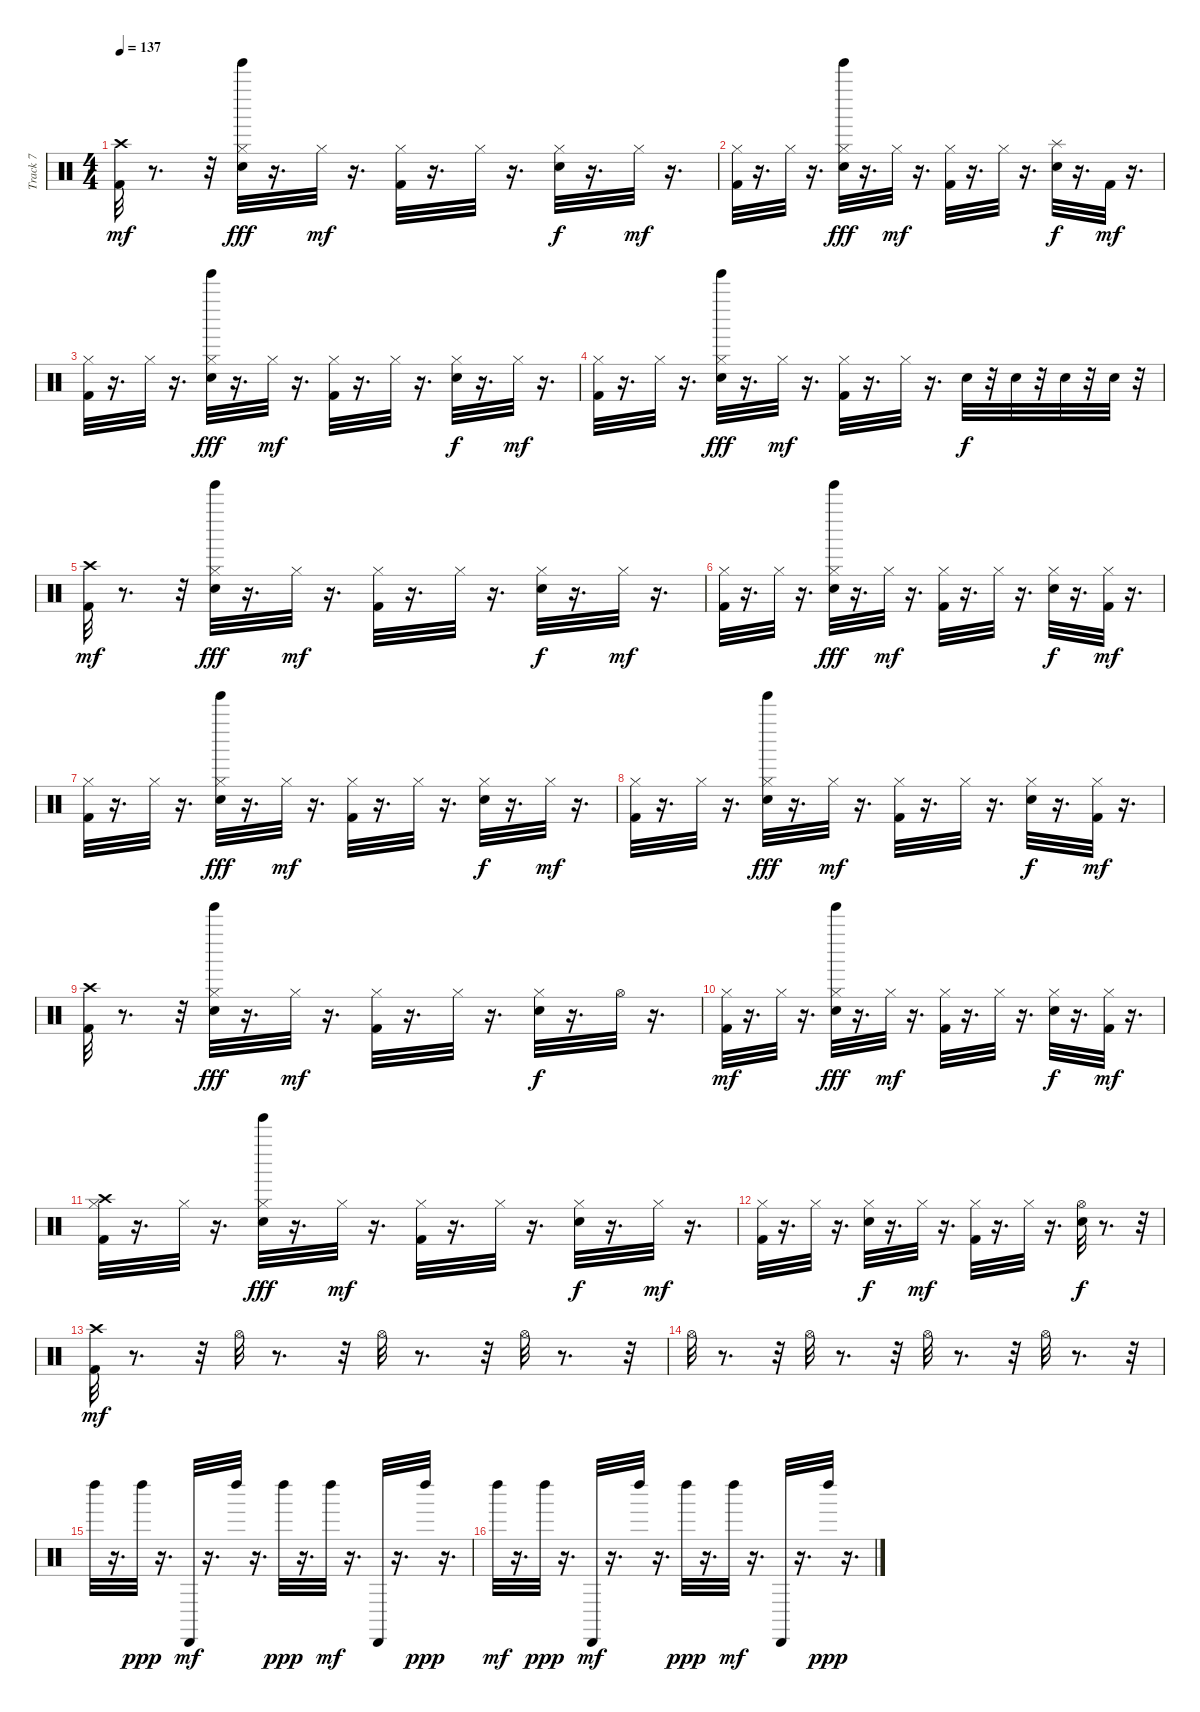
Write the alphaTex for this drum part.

\track ("Track 7" "Track 7") {instrument percussion}
\staff {score}
\articulation defaults
\ts (4 4)
\tempo 137
\clef neutral
\ks c
("Crash high (hit)" "Kick (hit) 2").32{dy mf} r.8{d} r.32 ("Tinkle Bell (hit)" "Snare (hit) 2" "Hi-Hat (closed)").32{dy fff} r.16{d} "Hi-Hat (closed)".32{dy mf} r.16{d} ("Kick (hit) 2" "Hi-Hat (closed)").32 r.16{d} "Hi-Hat (closed)".32 r.16{d} ("Snare (hit) 2" "Hi-Hat (closed)").32{dy f} r.16{d} "Hi-Hat (closed)".32{dy mf} r.16{d} |
("Kick (hit) 2" "Hi-Hat (closed)").32 r.16{d} "Hi-Hat (closed)".32 r.16{d} ("Tinkle Bell (hit)" "Snare (hit) 2" "Hi-Hat (closed)").32{dy fff} r.16{d} "Hi-Hat (closed)".32{dy mf} r.16{d} ("Kick (hit) 2" "Hi-Hat (closed)").32 r.16{d} "Hi-Hat (closed)".32 r.16{d} ("Splash (hit)" "Snare (hit) 2").32{dy f} r.16{d} "Kick (hit) 2".32{dy mf} r.16{d} |
("Kick (hit) 2" "Hi-Hat (closed)").32 r.16{d} "Hi-Hat (closed)".32 r.16{d} ("Tinkle Bell (hit)" "Snare (hit) 2" "Hi-Hat (closed)").32{dy fff} r.16{d} "Hi-Hat (closed)".32{dy mf} r.16{d} ("Kick (hit) 2" "Hi-Hat (closed)").32 r.16{d} "Hi-Hat (closed)".32 r.16{d} ("Snare (hit) 2" "Hi-Hat (closed)").32{dy f} r.16{d} "Hi-Hat (closed)".32{dy mf} r.16{d} |
("Kick (hit) 2" "Hi-Hat (closed)").32 r.16{d} "Hi-Hat (closed)".32 r.16{d} ("Tinkle Bell (hit)" "Snare (hit) 2" "Hi-Hat (closed)").32{dy fff} r.16{d} "Hi-Hat (closed)".32{dy mf} r.16{d} ("Kick (hit) 2" "Hi-Hat (closed)").32 r.16{d} "Hi-Hat (closed)".32 r.16{d} "Snare (hit) 2".32{dy f} r.32 "Snare (hit) 2".32 r.32 "Snare (hit) 2".32 r.32 "Snare (hit) 2".32 r.32 |
("Crash high (hit)" "Kick (hit) 2").32{dy mf} r.8{d} r.32 ("Tinkle Bell (hit)" "Snare (hit) 2" "Hi-Hat (closed)").32{dy fff} r.16{d} "Hi-Hat (closed)".32{dy mf} r.16{d} ("Kick (hit) 2" "Hi-Hat (closed)").32 r.16{d} "Hi-Hat (closed)".32 r.16{d} ("Snare (hit) 2" "Hi-Hat (closed)").32{dy f} r.16{d} "Hi-Hat (closed)".32{dy mf} r.16{d} |
("Kick (hit) 2" "Hi-Hat (closed)").32 r.16{d} "Hi-Hat (closed)".32 r.16{d} ("Tinkle Bell (hit)" "Snare (hit) 2" "Hi-Hat (closed)").32{dy fff} r.16{d} "Hi-Hat (closed)".32{dy mf} r.16{d} ("Kick (hit) 2" "Hi-Hat (closed)").32 r.16{d} "Hi-Hat (closed)".32 r.16{d} ("Snare (hit) 2" "Hi-Hat (closed)").32{dy f} r.16{d} ("Kick (hit) 2" "Hi-Hat (closed)").32{dy mf} r.16{d} |
("Kick (hit) 2" "Hi-Hat (closed)").32 r.16{d} "Hi-Hat (closed)".32 r.16{d} ("Tinkle Bell (hit)" "Snare (hit) 2" "Hi-Hat (closed)").32{dy fff} r.16{d} "Hi-Hat (closed)".32{dy mf} r.16{d} ("Kick (hit) 2" "Hi-Hat (closed)").32 r.16{d} "Hi-Hat (closed)".32 r.16{d} ("Snare (hit) 2" "Hi-Hat (closed)").32{dy f} r.16{d} "Hi-Hat (closed)".32{dy mf} r.16{d} |
("Kick (hit) 2" "Hi-Hat (closed)").32 r.16{d} "Hi-Hat (closed)".32 r.16{d} ("Tinkle Bell (hit)" "Snare (hit) 2" "Hi-Hat (closed)").32{dy fff} r.16{d} "Hi-Hat (closed)".32{dy mf} r.16{d} ("Kick (hit) 2" "Hi-Hat (closed)").32 r.16{d} "Hi-Hat (closed)".32 r.16{d} ("Snare (hit) 2" "Hi-Hat (closed)").32{dy f} r.16{d} ("Kick (hit) 2" "Hi-Hat (closed)").32{dy mf} r.16{d} |
("Crash high (hit)" "Kick (hit) 2").32 r.8{d} r.32 ("Tinkle Bell (hit)" "Snare (hit) 2" "Hi-Hat (closed)").32{dy fff} r.16{d} "Hi-Hat (closed)".32{dy mf} r.16{d} ("Kick (hit) 2" "Hi-Hat (closed)").32 r.16{d} "Hi-Hat (closed)".32 r.16{d} ("Snare (hit) 2" "Hi-Hat (closed)").32{dy f} r.16{d} "Hi-Hat (open)".32 r.16{d} |
("Kick (hit) 2" "Hi-Hat (closed)").32{dy mf} r.16{d} "Hi-Hat (closed)".32 r.16{d} ("Tinkle Bell (hit)" "Snare (hit) 2" "Hi-Hat (closed)").32{dy fff} r.16{d} "Hi-Hat (closed)".32{dy mf} r.16{d} ("Kick (hit) 2" "Hi-Hat (closed)").32 r.16{d} "Hi-Hat (closed)".32 r.16{d} ("Snare (hit) 2" "Hi-Hat (closed)").32{dy f} r.16{d} ("Kick (hit) 2" "Hi-Hat (closed)").32{dy mf} r.16{d} |
("Crash high (hit)" "Hi-Hat (closed)" "Kick (hit) 2").32 r.16{d} "Hi-Hat (closed)".32 r.16{d} ("Tinkle Bell (hit)" "Snare (hit) 2" "Hi-Hat (closed)").32{dy fff} r.16{d} "Hi-Hat (closed)".32{dy mf} r.16{d} ("Kick (hit) 2" "Hi-Hat (closed)").32 r.16{d} "Hi-Hat (closed)".32 r.16{d} ("Snare (hit) 2" "Hi-Hat (closed)").32{dy f} r.16{d} "Hi-Hat (closed)".32{dy mf} r.16{d} |
("Kick (hit) 2" "Hi-Hat (closed)").32 r.16{d} "Hi-Hat (closed)".32 r.16{d} ("Snare (hit) 2" "Hi-Hat (closed)").32{dy f} r.16{d} "Hi-Hat (closed)".32{dy mf} r.16{d} ("Kick (hit) 2" "Hi-Hat (closed)").32 r.16{d} "Hi-Hat (closed)".32 r.16{d} ("Hi-Hat (open)" "Snare (hit) 2").32{dy f} r.8{d} r.32 |
("Crash high (hit)" "Kick (hit) 2").32{dy mf} r.8{d} r.32 "Hi-Hat (open)".32 r.8{d} r.32 "Hi-Hat (open)".32 r.8{d} r.32 "Hi-Hat (open)".32 r.8{d} r.32 |
"Hi-Hat (open)".32 r.8{d} r.32 "Hi-Hat (open)".32 r.8{d} r.32 "Hi-Hat (open)".32 r.8{d} r.32 "Hi-Hat (open)".32 r.8{d} r.32 |
"Left Maraca (hit)".32 r.16{d} "Left Maraca (hit)".32{dy ppp} r.16{d} "Cabasa (hit)".32{dy mf} r.16{d} "Left Maraca (hit)".32 r.16{d} "Left Maraca (hit)".32{dy ppp} r.16{d} "Left Maraca (hit)".32{dy mf} r.16{d} "Cabasa (hit)".32 r.16{d} "Left Maraca (hit)".32{dy ppp} r.16{d} |
"Left Maraca (hit)".32{dy mf} r.16{d} "Left Maraca (hit)".32{dy ppp} r.16{d} "Cabasa (hit)".32{dy mf} r.16{d} "Left Maraca (hit)".32 r.16{d} "Left Maraca (hit)".32{dy ppp} r.16{d} "Left Maraca (hit)".32{dy mf} r.16{d} "Cabasa (hit)".32 r.16{d} "Left Maraca (hit)".32{dy ppp} r.16{d}
